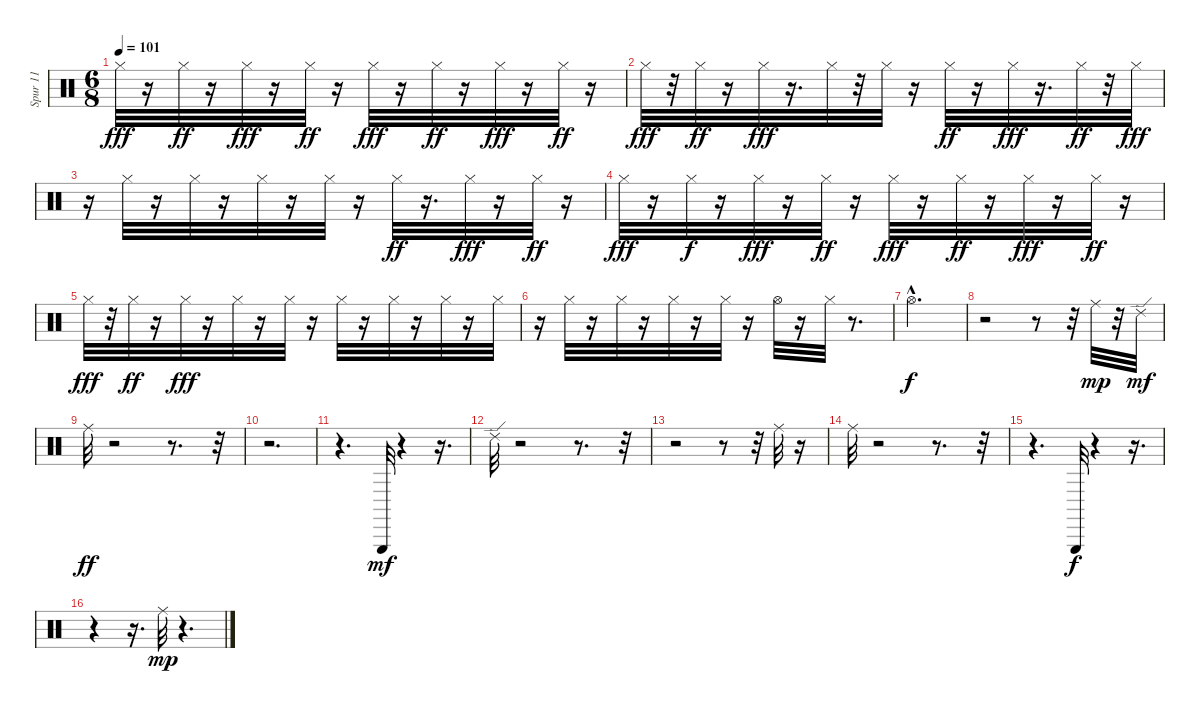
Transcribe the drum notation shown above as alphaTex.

\track ("Spur 11" "Spur 11") {instrument percussion}
\staff {score}
\articulation defaults
\ts (6 8)
\tempo 101
\clef neutral
\ks c "Hi-Hat (closed)".32{dy fff}
r.16 "Hi-Hat (closed)".32{dy ff} r.16 "Hi-Hat (closed)".32{dy fff} r.16 "Hi-Hat (closed)".32{dy ff} r.16 "Hi-Hat (closed)".32{dy fff} r.16 "Hi-Hat (closed)".32{dy ff} r.16 "Hi-Hat (closed)".32{dy fff} r.16 "Hi-Hat (closed)".32{dy ff} r.16 |
"Hi-Hat (closed)".32{dy fff} r.32 "Hi-Hat (closed)".32{dy ff} r.16 "Hi-Hat (closed)".32{dy fff} r.16{d} "Hi-Hat (closed)".32 r.32 "Hi-Hat (closed)".32 r.16 "Hi-Hat (closed)".32{dy ff} r.16 "Hi-Hat (closed)".32{dy fff} r.16{d} "Hi-Hat (closed)".32{dy ff} r.32 "Hi-Hat (closed)".32{dy fff} |
r.16 "Hi-Hat (closed)".32 r.16 "Hi-Hat (closed)".32 r.16 "Hi-Hat (closed)".32 r.16 "Hi-Hat (closed)".32 r.16 "Hi-Hat (closed)".32{dy ff} r.16{d} "Hi-Hat (closed)".32{dy fff} r.16 "Hi-Hat (closed)".32{dy ff} r.16 |
"Hi-Hat (closed)".32{dy fff} r.16 "Hi-Hat (closed)".32{dy f} r.16 "Hi-Hat (closed)".32{dy fff} r.16 "Hi-Hat (closed)".32{dy ff} r.16 "Hi-Hat (closed)".32{dy fff} r.16 "Hi-Hat (closed)".32{dy ff} r.16 "Hi-Hat (closed)".32{dy fff} r.16 "Hi-Hat (closed)".32{dy ff} r.16 |
"Hi-Hat (closed)".32{dy fff} r.32 "Hi-Hat (closed)".32{dy ff} r.16 "Hi-Hat (closed)".32{dy fff} r.16 "Hi-Hat (closed)".32 r.16 "Hi-Hat (closed)".32 r.16 "Hi-Hat (closed)".32 r.16 "Hi-Hat (closed)".32 r.16 "Hi-Hat (closed)".32 r.16 "Hi-Hat (closed)".32 |
r.16 "Hi-Hat (closed)".32 r.16 "Hi-Hat (closed)".32 r.16 "Hi-Hat (closed)".32 r.16 "Hi-Hat (closed)".32 r.16 "Hi-Hat (open)".32 r.16 "Hi-Hat (closed)".32 r.8{d} |
"Hi-Hat (open)"{hac}.2{d dy f} |
r.2 r.8 r.32 "Ride (middle)".32{dy mp} r.32 "Ride (edge) 2".32{dy mf} |
"Ride (middle)".32{dy ff} r.2 r.8{d} r.32 |
r.2{d} |
r.4{d} "Triangle (hit)".32{dy mf} r.4 r.16{d} |
"Ride (edge) 2".32 r.2 r.8{d} r.32 |
r.2 r.8 r.32 "Ride (middle)".32 r.16 |
"Ride (middle)".32 r.2 r.8{d} r.32 |
r.4{d} "Triangle (hit)".32{dy f} r.4 r.16{d} |
r.4 r.16{d} "Ride (middle)".32{dy mp} r.4{d}
